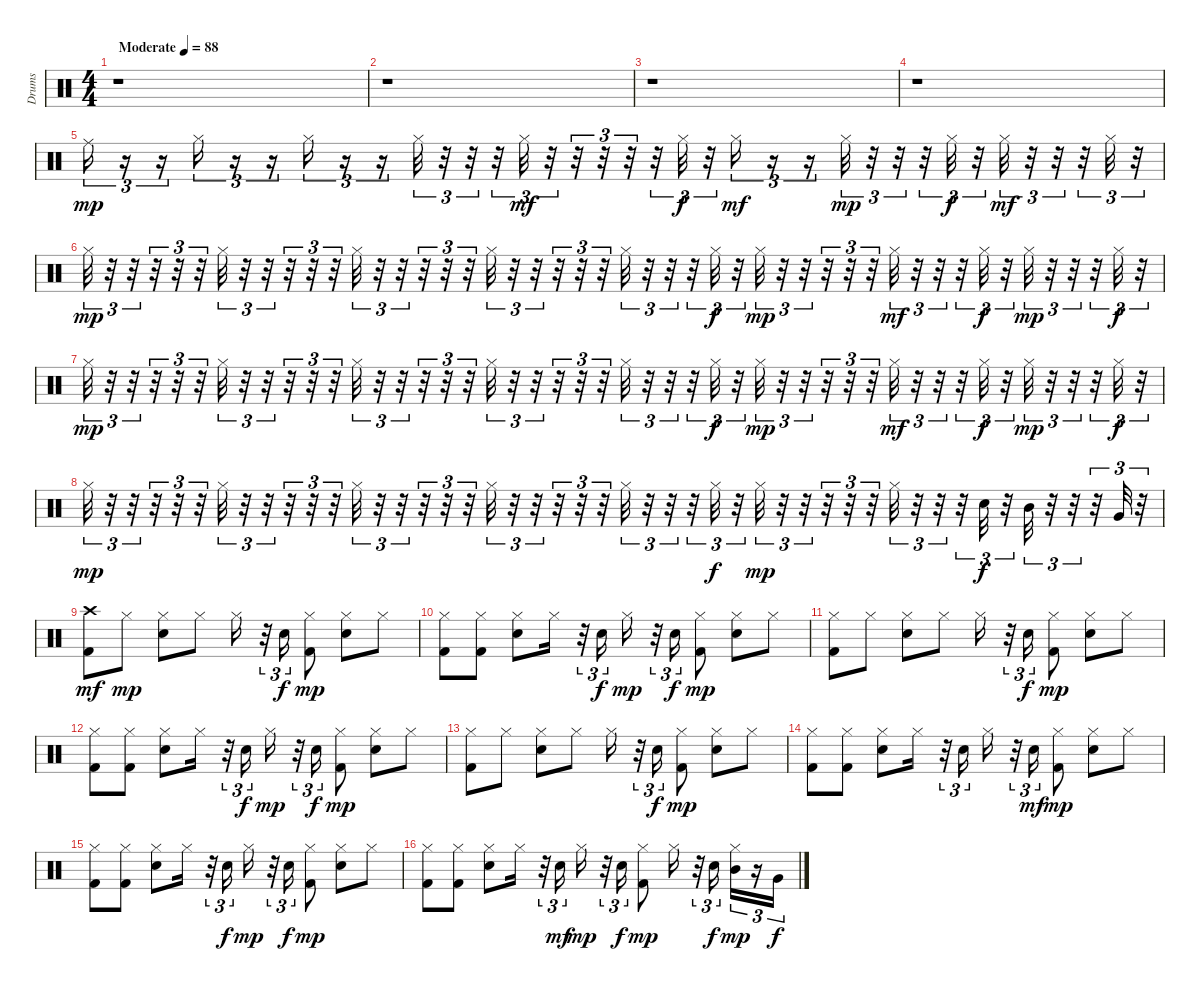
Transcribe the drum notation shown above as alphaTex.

\track ("Drums" "Drums") {instrument percussion}
\staff {score}
\articulation defaults
\ts (4 4)
\tempo (88 "Moderate")
\clef neutral
\ks c
r.1{dy mp volume 13 balance 8} |
r.1 |
r.1 |
r.1 |
"Ride (middle)".16{tu (3 2) volume 13 balance 8} r.16{tu (3 2)} r.16{tu (3 2)} "Hi-Hat (closed)".16{tu (3 2)} r.16{tu (3 2)} r.16{tu (3 2)} "Hi-Hat (closed)".16{tu (3 2)} r.16{tu (3 2)} r.16{tu (3 2)} "Hi-Hat (closed)".32{tu (3 2)} r.32{tu (3 2)} r.32{tu (3 2)} r.32{tu (3 2)} "Hi-Hat (closed)".32{tu (3 2) dy mf} r.32{tu (3 2)} r.32{tu (3 2)} r.32{tu (3 2)} r.32{tu (3 2)} r.32{tu (3 2)} "Hi-Hat (closed)".32{tu (3 2) dy f} r.32{tu (3 2)} "Hi-Hat (closed)".16{tu (3 2) dy mf} r.16{tu (3 2)} r.16{tu (3 2)} "Hi-Hat (closed)".32{tu (3 2) dy mp} r.32{tu (3 2)} r.32{tu (3 2)} r.32{tu (3 2)} "Hi-Hat (closed)".32{tu (3 2) dy f} r.32{tu (3 2)} "Hi-Hat (closed)".32{tu (3 2) dy mf} r.32{tu (3 2)} r.32{tu (3 2)} r.32{tu (3 2)} "Hi-Hat (closed)".32{tu (3 2)} r.32{tu (3 2)} |
"Hi-Hat (closed)".32{tu (3 2) dy mp} r.32{tu (3 2)} r.32{tu (3 2)} r.32{tu (3 2)} r.32{tu (3 2)} r.32{tu (3 2)} "Hi-Hat (closed)".32{tu (3 2)} r.32{tu (3 2)} r.32{tu (3 2)} r.32{tu (3 2)} r.32{tu (3 2)} r.32{tu (3 2)} "Hi-Hat (closed)".32{tu (3 2)} r.32{tu (3 2)} r.32{tu (3 2)} r.32{tu (3 2)} r.32{tu (3 2)} r.32{tu (3 2)} "Hi-Hat (closed)".32{tu (3 2)} r.32{tu (3 2)} r.32{tu (3 2)} r.32{tu (3 2)} r.32{tu (3 2)} r.32{tu (3 2)} "Hi-Hat (closed)".32{tu (3 2)} r.32{tu (3 2)} r.32{tu (3 2)} r.32{tu (3 2)} "Hi-Hat (closed)".32{tu (3 2) dy f} r.32{tu (3 2)} "Hi-Hat (closed)".32{tu (3 2) dy mp} r.32{tu (3 2)} r.32{tu (3 2)} r.32{tu (3 2)} r.32{tu (3 2)} r.32{tu (3 2)} "Hi-Hat (closed)".32{tu (3 2) dy mf} r.32{tu (3 2)} r.32{tu (3 2)} r.32{tu (3 2)} "Hi-Hat (closed)".32{tu (3 2) dy f} r.32{tu (3 2)} "Hi-Hat (closed)".32{tu (3 2) dy mp} r.32{tu (3 2)} r.32{tu (3 2)} r.32{tu (3 2)} "Hi-Hat (closed)".32{tu (3 2) dy f} r.32{tu (3 2)} |
"Hi-Hat (closed)".32{tu (3 2) dy mp} r.32{tu (3 2)} r.32{tu (3 2)} r.32{tu (3 2)} r.32{tu (3 2)} r.32{tu (3 2)} "Hi-Hat (closed)".32{tu (3 2)} r.32{tu (3 2)} r.32{tu (3 2)} r.32{tu (3 2)} r.32{tu (3 2)} r.32{tu (3 2)} "Hi-Hat (closed)".32{tu (3 2)} r.32{tu (3 2)} r.32{tu (3 2)} r.32{tu (3 2)} r.32{tu (3 2)} r.32{tu (3 2)} "Hi-Hat (closed)".32{tu (3 2)} r.32{tu (3 2)} r.32{tu (3 2)} r.32{tu (3 2)} r.32{tu (3 2)} r.32{tu (3 2)} "Hi-Hat (closed)".32{tu (3 2)} r.32{tu (3 2)} r.32{tu (3 2)} r.32{tu (3 2)} "Hi-Hat (closed)".32{tu (3 2) dy f} r.32{tu (3 2)} "Hi-Hat (closed)".32{tu (3 2) dy mp} r.32{tu (3 2)} r.32{tu (3 2)} r.32{tu (3 2)} r.32{tu (3 2)} r.32{tu (3 2)} "Hi-Hat (closed)".32{tu (3 2) dy mf} r.32{tu (3 2)} r.32{tu (3 2)} r.32{tu (3 2)} "Hi-Hat (closed)".32{tu (3 2) dy f} r.32{tu (3 2)} "Hi-Hat (closed)".32{tu (3 2) dy mp} r.32{tu (3 2)} r.32{tu (3 2)} r.32{tu (3 2)} "Hi-Hat (closed)".32{tu (3 2) dy f} r.32{tu (3 2)} |
"Hi-Hat (closed)".32{tu (3 2) dy mp} r.32{tu (3 2)} r.32{tu (3 2)} r.32{tu (3 2)} r.32{tu (3 2)} r.32{tu (3 2)} "Hi-Hat (closed)".32{tu (3 2)} r.32{tu (3 2)} r.32{tu (3 2)} r.32{tu (3 2)} r.32{tu (3 2)} r.32{tu (3 2)} "Hi-Hat (closed)".32{tu (3 2)} r.32{tu (3 2)} r.32{tu (3 2)} r.32{tu (3 2)} r.32{tu (3 2)} r.32{tu (3 2)} "Hi-Hat (closed)".32{tu (3 2)} r.32{tu (3 2)} r.32{tu (3 2)} r.32{tu (3 2)} r.32{tu (3 2)} r.32{tu (3 2)} "Hi-Hat (closed)".32{tu (3 2)} r.32{tu (3 2)} r.32{tu (3 2)} r.32{tu (3 2)} "Hi-Hat (closed)".32{tu (3 2) dy f} r.32{tu (3 2)} "Hi-Hat (closed)".32{tu (3 2) dy mp} r.32{tu (3 2)} r.32{tu (3 2)} r.32{tu (3 2)} r.32{tu (3 2)} r.32{tu (3 2)} "Hi-Hat (closed)".32{tu (3 2)} r.32{tu (3 2)} r.32{tu (3 2)} r.32{tu (3 2)} "Electric Snare (hit)".32{tu (3 2) dy f} r.32{tu (3 2)} "Mid Tom (hit)".32{tu (3 2)} r.32{tu (3 2)} r.32{tu (3 2)} r.32{tu (3 2)} "Very Low Tom (hit)".32{tu (3 2)} r.32{tu (3 2)} |
("Crash high (hit)" "Kick (hit) 2").8{dy mf} "Hi-Hat (closed)".8{dy mp} ("Hi-Hat (closed)" "Electric Snare (hit)").8 "Hi-Hat (closed)".8 "Hi-Hat (closed)".16 r.32{tu (3 2)} "Electric Snare (hit)".16{tu (3 2) dy f} ("Hi-Hat (closed)" "Kick (hit) 2").8{dy mp} ("Hi-Hat (closed)" "Electric Snare (hit)").8 "Hi-Hat (closed)".8 |
("Hi-Hat (closed)" "Kick (hit) 2").8 ("Hi-Hat (closed)" "Kick (hit) 2").8 ("Hi-Hat (closed)" "Electric Snare (hit)").8 "Hi-Hat (closed)".16 r.32{tu (3 2)} "Electric Snare (hit)".16{tu (3 2) dy f} "Hi-Hat (closed)".16{dy mp} r.32{tu (3 2)} "Electric Snare (hit)".16{tu (3 2) dy f} ("Hi-Hat (closed)" "Kick (hit) 2").8{dy mp} ("Hi-Hat (closed)" "Electric Snare (hit)").8 "Hi-Hat (closed)".8 |
("Hi-Hat (closed)" "Kick (hit) 2").8 "Hi-Hat (closed)".8 ("Hi-Hat (closed)" "Electric Snare (hit)").8 "Hi-Hat (closed)".8 "Hi-Hat (closed)".16 r.32{tu (3 2)} "Electric Snare (hit)".16{tu (3 2) dy f} ("Hi-Hat (closed)" "Kick (hit) 2").8{dy mp} ("Hi-Hat (closed)" "Electric Snare (hit)").8 "Hi-Hat (closed)".8 |
("Hi-Hat (closed)" "Kick (hit) 2").8 ("Hi-Hat (closed)" "Kick (hit) 2").8 ("Hi-Hat (closed)" "Electric Snare (hit)").8 "Hi-Hat (closed)".16 r.32{tu (3 2)} "Electric Snare (hit)".16{tu (3 2) dy f} "Hi-Hat (closed)".16{dy mp} r.32{tu (3 2)} "Electric Snare (hit)".16{tu (3 2) dy f} ("Hi-Hat (closed)" "Kick (hit) 2").8{dy mp} ("Hi-Hat (closed)" "Electric Snare (hit)").8 "Hi-Hat (closed)".8 |
("Hi-Hat (closed)" "Kick (hit) 2").8 "Hi-Hat (closed)".8 ("Hi-Hat (closed)" "Electric Snare (hit)").8 "Hi-Hat (closed)".8 "Hi-Hat (closed)".16 r.32{tu (3 2)} "Electric Snare (hit)".16{tu (3 2) dy f} ("Hi-Hat (closed)" "Kick (hit) 2").8{dy mp} ("Hi-Hat (closed)" "Electric Snare (hit)").8 "Hi-Hat (closed)".8 |
("Hi-Hat (closed)" "Kick (hit) 2").8 ("Hi-Hat (closed)" "Kick (hit) 2").8 ("Hi-Hat (closed)" "Electric Snare (hit)").8 "Hi-Hat (closed)".16 r.32{tu (3 2)} "Electric Snare (hit)".16{tu (3 2)} "Hi-Hat (closed)".16 r.32{tu (3 2)} "Electric Snare (hit)".16{tu (3 2) dy mf} ("Hi-Hat (closed)" "Kick (hit) 2").8{dy mp} ("Hi-Hat (closed)" "Electric Snare (hit)").8 "Hi-Hat (closed)".8 |
("Hi-Hat (closed)" "Kick (hit) 2").8{volume 13 balance 8} ("Hi-Hat (closed)" "Kick (hit) 2").8 ("Hi-Hat (closed)" "Electric Snare (hit)").8 "Hi-Hat (closed)".16 r.32{tu (3 2)} "Electric Snare (hit)".16{tu (3 2) dy f} "Hi-Hat (closed)".16{dy mp} r.32{tu (3 2)} "Electric Snare (hit)".16{tu (3 2) dy f} ("Hi-Hat (closed)" "Kick (hit) 2").8{dy mp} ("Hi-Hat (closed)" "Electric Snare (hit)").8 "Hi-Hat (closed)".8 |
("Hi-Hat (closed)" "Kick (hit) 2").8 ("Hi-Hat (closed)" "Kick (hit) 2").8 ("Hi-Hat (closed)" "Electric Snare (hit)").8 "Hi-Hat (closed)".16 r.32{tu (3 2)} "Electric Snare (hit)".16{tu (3 2) dy mf} "Hi-Hat (closed)".16{dy mp} r.32{tu (3 2)} "Electric Snare (hit)".16{tu (3 2) dy f} ("Hi-Hat (closed)" "Kick (hit) 2").8{dy mp} "Hi-Hat (closed)".16 r.32{tu (3 2)} "Electric Snare (hit)".16{tu (3 2) dy f} ("Hi-Hat (closed)" "Mid Tom (hit)").16{tu (3 2) dy mp} r.16{tu (3 2)} "Very Low Tom (hit)".16{tu (3 2) dy f}
